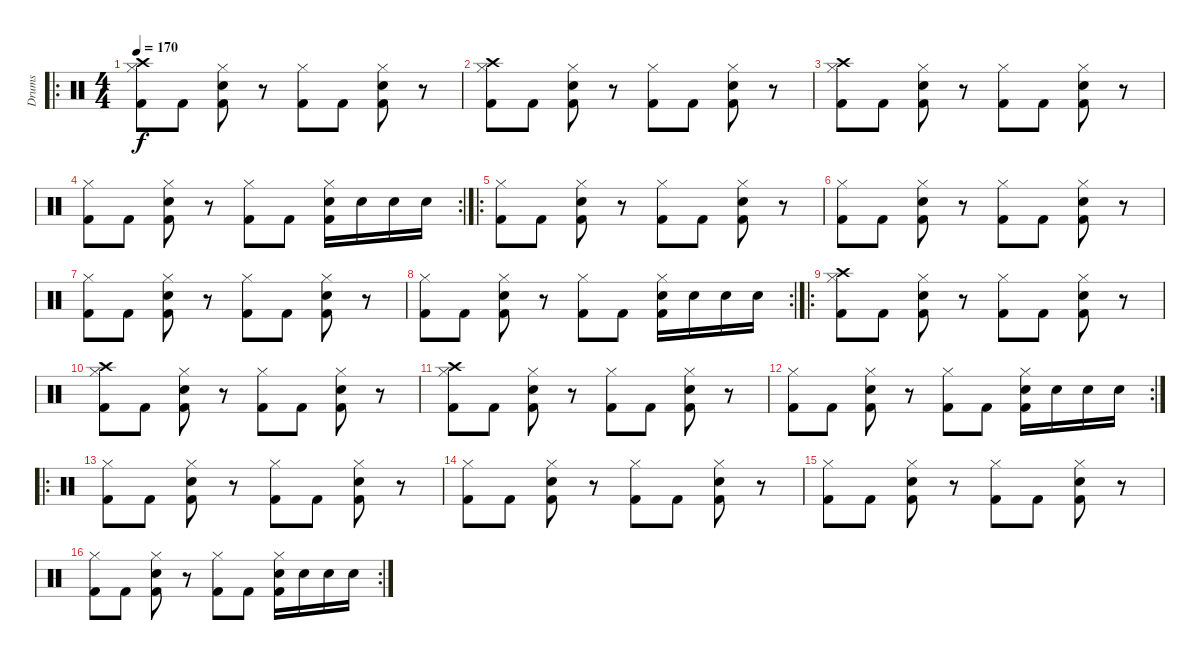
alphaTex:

\track ("Drums" "Drums") {instrument percussion}
\staff {score}
\articulation defaults
\ro
\ts (4 4)
\tempo 170
\clef neutral
\ks c
("Hi-Hat (closed)" "Crash high (hit)" "Kick (hit) 2").8{dy f} "Kick (hit) 2".8 ("Hi-Hat (closed)" "Snare (hit) 2" "Kick (hit) 2").8 r.8 ("Hi-Hat (closed)" "Kick (hit) 2").8 "Kick (hit) 2".8 ("Hi-Hat (closed)" "Snare (hit) 2" "Kick (hit) 2").8 r.8 |
("Hi-Hat (closed)" "Crash high (hit)" "Kick (hit) 2").8 "Kick (hit) 2".8 ("Hi-Hat (closed)" "Snare (hit) 2" "Kick (hit) 2").8 r.8 ("Hi-Hat (closed)" "Kick (hit) 2").8 "Kick (hit) 2".8 ("Hi-Hat (closed)" "Snare (hit) 2" "Kick (hit) 2").8 r.8 |
("Hi-Hat (closed)" "Crash high (hit)" "Kick (hit) 2").8 "Kick (hit) 2".8 ("Hi-Hat (closed)" "Snare (hit) 2" "Kick (hit) 2").8 r.8 ("Hi-Hat (closed)" "Kick (hit) 2").8 "Kick (hit) 2".8 ("Hi-Hat (closed)" "Snare (hit) 2" "Kick (hit) 2").8 r.8 |
\rc 2
("Hi-Hat (closed)" "Kick (hit) 2").8 "Kick (hit) 2".8 ("Hi-Hat (closed)" "Snare (hit) 2" "Kick (hit) 2").8 r.8 ("Hi-Hat (closed)" "Kick (hit) 2").8 "Kick (hit) 2".8 ("Hi-Hat (closed)" "Snare (hit) 2" "Kick (hit) 2").16 "Snare (hit) 2".16 "Snare (hit) 2".16 "Snare (hit) 2".16 |
\ro
("Hi-Hat (closed)" "Kick (hit) 2").8 "Kick (hit) 2".8 ("Hi-Hat (closed)" "Snare (hit) 2" "Kick (hit) 2").8 r.8 ("Hi-Hat (closed)" "Kick (hit) 2").8 "Kick (hit) 2".8 ("Hi-Hat (closed)" "Snare (hit) 2" "Kick (hit) 2").8 r.8 |
("Hi-Hat (closed)" "Kick (hit) 2").8 "Kick (hit) 2".8 ("Hi-Hat (closed)" "Snare (hit) 2" "Kick (hit) 2").8 r.8 ("Hi-Hat (closed)" "Kick (hit) 2").8 "Kick (hit) 2".8 ("Hi-Hat (closed)" "Snare (hit) 2" "Kick (hit) 2").8 r.8 |
("Hi-Hat (closed)" "Kick (hit) 2").8 "Kick (hit) 2".8 ("Hi-Hat (closed)" "Snare (hit) 2" "Kick (hit) 2").8 r.8 ("Hi-Hat (closed)" "Kick (hit) 2").8 "Kick (hit) 2".8 ("Hi-Hat (closed)" "Snare (hit) 2" "Kick (hit) 2").8 r.8 |
\rc 2
("Hi-Hat (closed)" "Kick (hit) 2").8 "Kick (hit) 2".8 ("Hi-Hat (closed)" "Snare (hit) 2" "Kick (hit) 2").8 r.8 ("Hi-Hat (closed)" "Kick (hit) 2").8 "Kick (hit) 2".8 ("Hi-Hat (closed)" "Snare (hit) 2" "Kick (hit) 2").16 "Snare (hit) 2".16 "Snare (hit) 2".16 "Snare (hit) 2".16 |
\ro
("Hi-Hat (closed)" "Crash high (hit)" "Kick (hit) 2").8 "Kick (hit) 2".8 ("Hi-Hat (closed)" "Snare (hit) 2" "Kick (hit) 2").8 r.8 ("Hi-Hat (closed)" "Kick (hit) 2").8 "Kick (hit) 2".8 ("Hi-Hat (closed)" "Snare (hit) 2" "Kick (hit) 2").8 r.8 |
("Hi-Hat (closed)" "Crash high (hit)" "Kick (hit) 2").8 "Kick (hit) 2".8 ("Hi-Hat (closed)" "Snare (hit) 2" "Kick (hit) 2").8 r.8 ("Hi-Hat (closed)" "Kick (hit) 2").8 "Kick (hit) 2".8 ("Hi-Hat (closed)" "Snare (hit) 2" "Kick (hit) 2").8 r.8 |
("Hi-Hat (closed)" "Crash high (hit)" "Kick (hit) 2").8 "Kick (hit) 2".8 ("Hi-Hat (closed)" "Snare (hit) 2" "Kick (hit) 2").8 r.8 ("Hi-Hat (closed)" "Kick (hit) 2").8 "Kick (hit) 2".8 ("Hi-Hat (closed)" "Snare (hit) 2" "Kick (hit) 2").8 r.8 |
\rc 2
("Hi-Hat (closed)" "Kick (hit) 2").8 "Kick (hit) 2".8 ("Hi-Hat (closed)" "Snare (hit) 2" "Kick (hit) 2").8 r.8 ("Hi-Hat (closed)" "Kick (hit) 2").8 "Kick (hit) 2".8 ("Hi-Hat (closed)" "Snare (hit) 2" "Kick (hit) 2").16 "Snare (hit) 2".16 "Snare (hit) 2".16 "Snare (hit) 2".16 |
\ro
("Hi-Hat (closed)" "Kick (hit) 2").8 "Kick (hit) 2".8 ("Hi-Hat (closed)" "Snare (hit) 2" "Kick (hit) 2").8 r.8 ("Hi-Hat (closed)" "Kick (hit) 2").8 "Kick (hit) 2".8 ("Hi-Hat (closed)" "Snare (hit) 2" "Kick (hit) 2").8 r.8 |
("Hi-Hat (closed)" "Kick (hit) 2").8 "Kick (hit) 2".8 ("Hi-Hat (closed)" "Snare (hit) 2" "Kick (hit) 2").8 r.8 ("Hi-Hat (closed)" "Kick (hit) 2").8 "Kick (hit) 2".8 ("Hi-Hat (closed)" "Snare (hit) 2" "Kick (hit) 2").8 r.8 |
("Hi-Hat (closed)" "Kick (hit) 2").8 "Kick (hit) 2".8 ("Hi-Hat (closed)" "Snare (hit) 2" "Kick (hit) 2").8 r.8 ("Hi-Hat (closed)" "Kick (hit) 2").8 "Kick (hit) 2".8 ("Hi-Hat (closed)" "Snare (hit) 2" "Kick (hit) 2").8 r.8 |
\rc 2
("Hi-Hat (closed)" "Kick (hit) 2").8 "Kick (hit) 2".8 ("Hi-Hat (closed)" "Snare (hit) 2" "Kick (hit) 2").8 r.8 ("Hi-Hat (closed)" "Kick (hit) 2").8 "Kick (hit) 2".8 ("Hi-Hat (closed)" "Snare (hit) 2" "Kick (hit) 2").16 "Snare (hit) 2".16 "Snare (hit) 2".16 "Snare (hit) 2".16
